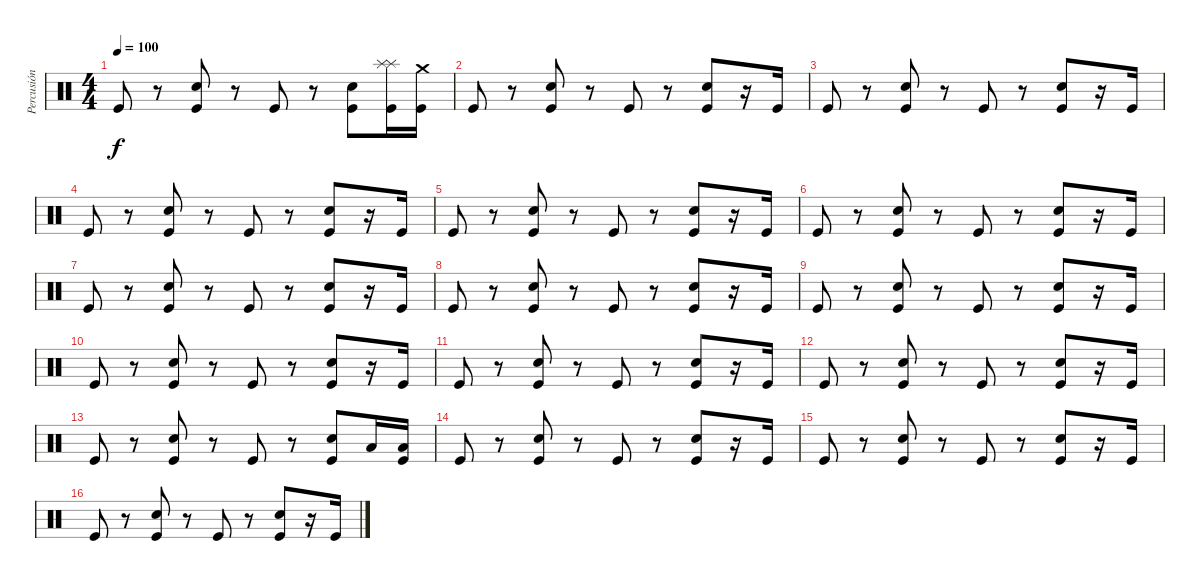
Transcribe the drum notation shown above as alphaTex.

\track ("Percusión" "Percusión") {instrument percussion}
\staff {score}
\articulation defaults
\ts (4 4)
\tempo 100
\clef neutral
\ks c "Kick (hit)".8{dy f}
r.8 ("Kick (hit)" "Electric Snare (hit)").8 r.8 "Kick (hit)".8 r.8 ("Kick (hit)" "Electric Snare (hit)").8 ("Splash (hit)" "Kick (hit)" "Splash (hit)").16 ("Kick (hit)" "Crash medium (hit)").16 |
"Kick (hit)".8 r.8 ("Kick (hit)" "Electric Snare (hit)").8 r.8 "Kick (hit)".8 r.8 ("Kick (hit)" "Electric Snare (hit)").8 r.16 "Kick (hit)".16 |
"Kick (hit)".8 r.8 ("Kick (hit)" "Electric Snare (hit)").8 r.8 "Kick (hit)".8 r.8 ("Kick (hit)" "Electric Snare (hit)").8 r.16 "Kick (hit)".16 |
"Kick (hit)".8 r.8 ("Kick (hit)" "Electric Snare (hit)").8 r.8 "Kick (hit)".8 r.8 ("Kick (hit)" "Electric Snare (hit)").8 r.16 "Kick (hit)".16 |
"Kick (hit)".8 r.8 ("Kick (hit)" "Electric Snare (hit)").8 r.8 "Kick (hit)".8 r.8 ("Kick (hit)" "Electric Snare (hit)").8 r.16 "Kick (hit)".16 |
"Kick (hit)".8 r.8 ("Kick (hit)" "Electric Snare (hit)").8 r.8 "Kick (hit)".8 r.8 ("Kick (hit)" "Electric Snare (hit)").8 r.16 "Kick (hit)".16 |
"Kick (hit)".8 r.8 ("Kick (hit)" "Electric Snare (hit)").8 r.8 "Kick (hit)".8 r.8 ("Kick (hit)" "Electric Snare (hit)").8 r.16 "Kick (hit)".16 |
"Kick (hit)".8 r.8 ("Kick (hit)" "Electric Snare (hit)").8 r.8 "Kick (hit)".8 r.8 ("Kick (hit)" "Electric Snare (hit)").8 r.16 "Kick (hit)".16 |
"Kick (hit)".8 r.8 ("Kick (hit)" "Electric Snare (hit)").8 r.8 "Kick (hit)".8 r.8 ("Kick (hit)" "Electric Snare (hit)").8 r.16 "Kick (hit)".16 |
"Kick (hit)".8 r.8 ("Kick (hit)" "Electric Snare (hit)").8 r.8 "Kick (hit)".8 r.8 ("Kick (hit)" "Electric Snare (hit)").8 r.16 "Kick (hit)".16 |
"Kick (hit)".8 r.8 ("Kick (hit)" "Electric Snare (hit)").8 r.8 "Kick (hit)".8 r.8 ("Kick (hit)" "Electric Snare (hit)").8 r.16 "Kick (hit)".16 |
"Kick (hit)".8 r.8 ("Kick (hit)" "Electric Snare (hit)").8 r.8 "Kick (hit)".8 r.8 ("Kick (hit)" "Electric Snare (hit)").8 r.16 "Kick (hit)".16 |
"Kick (hit)".8 r.8 ("Kick (hit)" "Electric Snare (hit)").8 r.8 "Kick (hit)".8 r.8 ("Kick (hit)" "Electric Snare (hit)").8 "Low Floor Tom (hit)".16 ("Kick (hit)" "Low Floor Tom (hit)").16 |
"Kick (hit)".8 r.8 ("Kick (hit)" "Electric Snare (hit)").8 r.8 "Kick (hit)".8 r.8 ("Kick (hit)" "Electric Snare (hit)").8 r.16 "Kick (hit)".16 |
"Kick (hit)".8 r.8 ("Kick (hit)" "Electric Snare (hit)").8 r.8 "Kick (hit)".8 r.8 ("Kick (hit)" "Electric Snare (hit)").8 r.16 "Kick (hit)".16 |
"Kick (hit)".8 r.8 ("Kick (hit)" "Electric Snare (hit)").8 r.8 "Kick (hit)".8 r.8 ("Kick (hit)" "Electric Snare (hit)").8 r.16 "Kick (hit)".16
